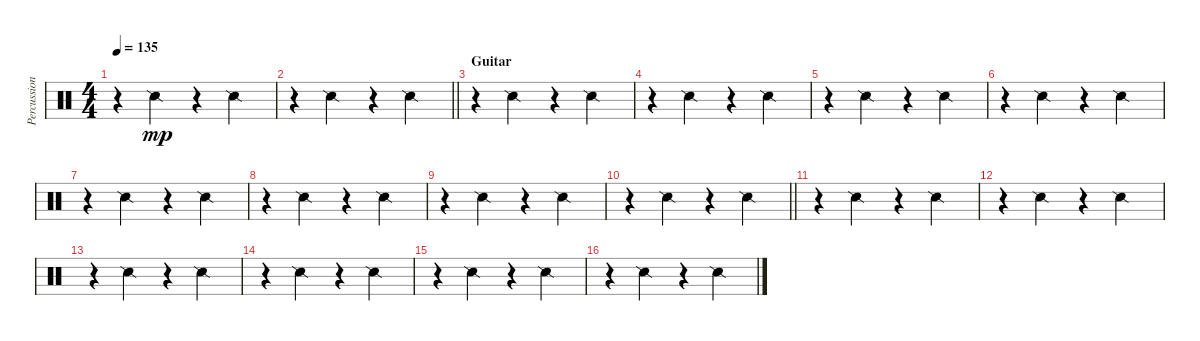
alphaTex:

\track ("Percussion" "Percussion") {instrument percussion}
\staff {score}
\articulation defaults
\ts (4 4)
\tempo 135
\clef neutral
\ks c
r.4{dy mp} "Snare (side stick) 2".4 r.4 "Snare (side stick) 2".4 |
\barLineRight lightlight
r.4 "Snare (side stick) 2".4 r.4 "Snare (side stick) 2".4 |
\section ("" "Guitar")
r.4 "Snare (side stick) 2".4 r.4 "Snare (side stick) 2".4 |
r.4 "Snare (side stick) 2".4 r.4 "Snare (side stick) 2".4 |
r.4 "Snare (side stick) 2".4 r.4 "Snare (side stick) 2".4 |
r.4 "Snare (side stick) 2".4 r.4 "Snare (side stick) 2".4 |
r.4 "Snare (side stick) 2".4 r.4 "Snare (side stick) 2".4 |
r.4 "Snare (side stick) 2".4 r.4 "Snare (side stick) 2".4 |
r.4 "Snare (side stick) 2".4 r.4 "Snare (side stick) 2".4 |
\barLineRight lightlight
r.4 "Snare (side stick) 2".4 r.4 "Snare (side stick) 2".4 |
\section ("" "")
r.4 "Snare (side stick) 2".4 r.4 "Snare (side stick) 2".4 |
r.4 "Snare (side stick) 2".4 r.4 "Snare (side stick) 2".4 |
r.4 "Snare (side stick) 2".4 r.4 "Snare (side stick) 2".4 |
r.4 "Snare (side stick) 2".4 r.4 "Snare (side stick) 2".4 |
r.4 "Snare (side stick) 2".4 r.4 "Snare (side stick) 2".4 |
r.4 "Snare (side stick) 2".4 r.4 "Snare (side stick) 2".4
